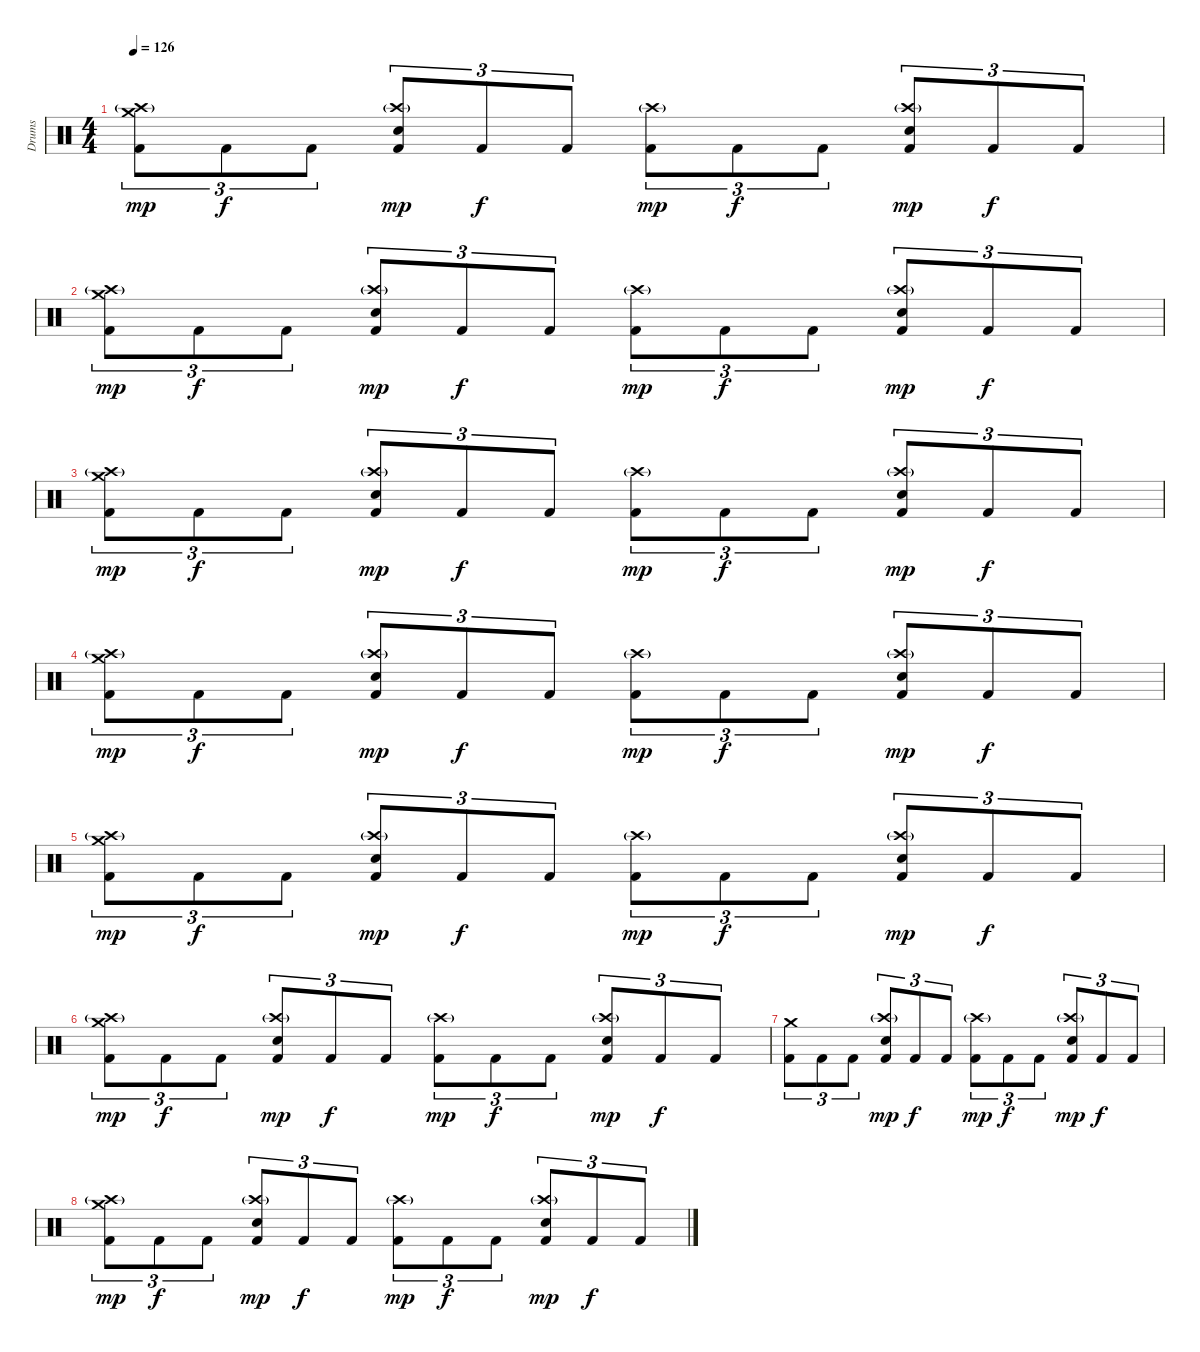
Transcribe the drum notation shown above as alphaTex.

\track ("Drums" "Drums") {instrument percussion}
\staff {score}
\articulation defaults
\ts (4 4)
\tempo 126
\clef neutral
\ks c
("Kick (hit) 2" "Crash medium (hit)" "Crash high (hit)"{g}).8{tu (3 2) dy mp} "Kick (hit) 2".8{tu (3 2) dy f} "Kick (hit) 2".8{tu (3 2)} ("Kick (hit) 2" "Snare (hit) 2" "Crash high (hit)"{g}).8{tu (3 2) dy mp} "Kick (hit) 2".8{tu (3 2) dy f} "Kick (hit) 2".8{tu (3 2)} ("Kick (hit) 2" "Crash high (hit)"{g}).8{tu (3 2) dy mp} "Kick (hit) 2".8{tu (3 2) dy f} "Kick (hit) 2".8{tu (3 2)} ("Kick (hit) 2" "Snare (hit) 2" "Crash high (hit)"{g}).8{tu (3 2) dy mp} "Kick (hit) 2".8{tu (3 2) dy f} "Kick (hit) 2".8{tu (3 2)} |
("Kick (hit) 2" "Crash medium (hit)" "Crash high (hit)"{g}).8{tu (3 2) dy mp} "Kick (hit) 2".8{tu (3 2) dy f} "Kick (hit) 2".8{tu (3 2)} ("Kick (hit) 2" "Snare (hit) 2" "Crash high (hit)"{g}).8{tu (3 2) dy mp} "Kick (hit) 2".8{tu (3 2) dy f} "Kick (hit) 2".8{tu (3 2)} ("Kick (hit) 2" "Crash high (hit)"{g}).8{tu (3 2) dy mp} "Kick (hit) 2".8{tu (3 2) dy f} "Kick (hit) 2".8{tu (3 2)} ("Kick (hit) 2" "Snare (hit) 2" "Crash high (hit)"{g}).8{tu (3 2) dy mp} "Kick (hit) 2".8{tu (3 2) dy f} "Kick (hit) 2".8{tu (3 2)} |
("Kick (hit) 2" "Crash medium (hit)" "Crash high (hit)"{g}).8{tu (3 2) dy mp} "Kick (hit) 2".8{tu (3 2) dy f} "Kick (hit) 2".8{tu (3 2)} ("Kick (hit) 2" "Snare (hit) 2" "Crash high (hit)"{g}).8{tu (3 2) dy mp} "Kick (hit) 2".8{tu (3 2) dy f} "Kick (hit) 2".8{tu (3 2)} ("Kick (hit) 2" "Crash high (hit)"{g}).8{tu (3 2) dy mp} "Kick (hit) 2".8{tu (3 2) dy f} "Kick (hit) 2".8{tu (3 2)} ("Kick (hit) 2" "Snare (hit) 2" "Crash high (hit)"{g}).8{tu (3 2) dy mp} "Kick (hit) 2".8{tu (3 2) dy f} "Kick (hit) 2".8{tu (3 2)} |
("Kick (hit) 2" "Crash medium (hit)" "Crash high (hit)"{g}).8{tu (3 2) dy mp} "Kick (hit) 2".8{tu (3 2) dy f} "Kick (hit) 2".8{tu (3 2)} ("Kick (hit) 2" "Snare (hit) 2" "Crash high (hit)"{g}).8{tu (3 2) dy mp} "Kick (hit) 2".8{tu (3 2) dy f} "Kick (hit) 2".8{tu (3 2)} ("Kick (hit) 2" "Crash high (hit)"{g}).8{tu (3 2) dy mp} "Kick (hit) 2".8{tu (3 2) dy f} "Kick (hit) 2".8{tu (3 2)} ("Kick (hit) 2" "Snare (hit) 2" "Crash high (hit)"{g}).8{tu (3 2) dy mp} "Kick (hit) 2".8{tu (3 2) dy f} "Kick (hit) 2".8{tu (3 2)} |
("Kick (hit) 2" "Crash medium (hit)" "Crash high (hit)"{g}).8{tu (3 2) dy mp} "Kick (hit) 2".8{tu (3 2) dy f} "Kick (hit) 2".8{tu (3 2)} ("Kick (hit) 2" "Snare (hit) 2" "Crash high (hit)"{g}).8{tu (3 2) dy mp} "Kick (hit) 2".8{tu (3 2) dy f} "Kick (hit) 2".8{tu (3 2)} ("Kick (hit) 2" "Crash high (hit)"{g}).8{tu (3 2) dy mp} "Kick (hit) 2".8{tu (3 2) dy f} "Kick (hit) 2".8{tu (3 2)} ("Kick (hit) 2" "Snare (hit) 2" "Crash high (hit)"{g}).8{tu (3 2) dy mp} "Kick (hit) 2".8{tu (3 2) dy f} "Kick (hit) 2".8{tu (3 2)} |
("Kick (hit) 2" "Crash medium (hit)" "Crash high (hit)"{g}).8{tu (3 2) dy mp} "Kick (hit) 2".8{tu (3 2) dy f} "Kick (hit) 2".8{tu (3 2)} ("Kick (hit) 2" "Snare (hit) 2" "Crash high (hit)"{g}).8{tu (3 2) dy mp} "Kick (hit) 2".8{tu (3 2) dy f} "Kick (hit) 2".8{tu (3 2)} ("Kick (hit) 2" "Crash high (hit)"{g}).8{tu (3 2) dy mp} "Kick (hit) 2".8{tu (3 2) dy f} "Kick (hit) 2".8{tu (3 2)} ("Kick (hit) 2" "Snare (hit) 2" "Crash high (hit)"{g}).8{tu (3 2) dy mp} "Kick (hit) 2".8{tu (3 2) dy f} "Kick (hit) 2".8{tu (3 2)} |
("Kick (hit) 2" "Crash medium (hit)").8{tu (3 2)} "Kick (hit) 2".8{tu (3 2)} "Kick (hit) 2".8{tu (3 2)} ("Kick (hit) 2" "Snare (hit) 2" "Crash high (hit)"{g}).8{tu (3 2) dy mp} "Kick (hit) 2".8{tu (3 2) dy f} "Kick (hit) 2".8{tu (3 2)} ("Kick (hit) 2" "Crash high (hit)"{g}).8{tu (3 2) dy mp} "Kick (hit) 2".8{tu (3 2) dy f} "Kick (hit) 2".8{tu (3 2)} ("Kick (hit) 2" "Snare (hit) 2" "Crash high (hit)"{g}).8{tu (3 2) dy mp} "Kick (hit) 2".8{tu (3 2) dy f} "Kick (hit) 2".8{tu (3 2)} |
("Kick (hit) 2" "Crash medium (hit)" "Crash high (hit)"{g}).8{tu (3 2) dy mp} "Kick (hit) 2".8{tu (3 2) dy f} "Kick (hit) 2".8{tu (3 2)} ("Kick (hit) 2" "Snare (hit) 2" "Crash high (hit)"{g}).8{tu (3 2) dy mp} "Kick (hit) 2".8{tu (3 2) dy f} "Kick (hit) 2".8{tu (3 2)} ("Kick (hit) 2" "Crash high (hit)"{g}).8{tu (3 2) dy mp} "Kick (hit) 2".8{tu (3 2) dy f} "Kick (hit) 2".8{tu (3 2)} ("Kick (hit) 2" "Snare (hit) 2" "Crash high (hit)"{g}).8{tu (3 2) dy mp} "Kick (hit) 2".8{tu (3 2) dy f} "Kick (hit) 2".8{tu (3 2)}
